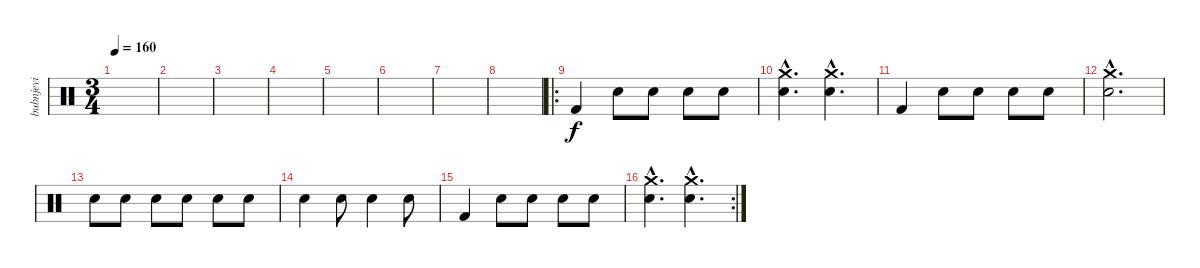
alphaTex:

\track ("bubnjevi" "bubnjevi") {instrument percussion}
\staff {score}
\articulation defaults
\ts (3 4)
\tempo 160
\clef neutral
\ks c
|
|
|
|
|
|
|
|
\ro "Kick (hit) 2".4 "Snare (hit) 2".8 "Snare (hit) 2".8 "Snare (hit) 2".8 "Snare (hit) 2".8
|
("Crash medium (hit)"{hac} "Snare (hit) 2"{hac}).4{d} ("Crash medium (hit)"{hac} "Snare (hit) 2"{hac}).4{d} |
"Kick (hit) 2".4 "Snare (hit) 2".8 "Snare (hit) 2".8 "Snare (hit) 2".8 "Snare (hit) 2".8 |
("Crash medium (hit)"{hac} "Snare (hit) 2"{hac}).2{d} |
"Snare (hit) 2".8 "Snare (hit) 2".8 "Snare (hit) 2".8 "Snare (hit) 2".8 "Snare (hit) 2".8 "Snare (hit) 2".8 |
"Snare (hit) 2".4 "Snare (hit) 2".8 "Snare (hit) 2".4 "Snare (hit) 2".8 |
"Kick (hit) 2".4 "Snare (hit) 2".8 "Snare (hit) 2".8 "Snare (hit) 2".8 "Snare (hit) 2".8 |
\rc 2
("Crash medium (hit)"{hac} "Snare (hit) 2"{hac}).4{d} ("Crash medium (hit)"{hac} "Snare (hit) 2"{hac}).4{d}
